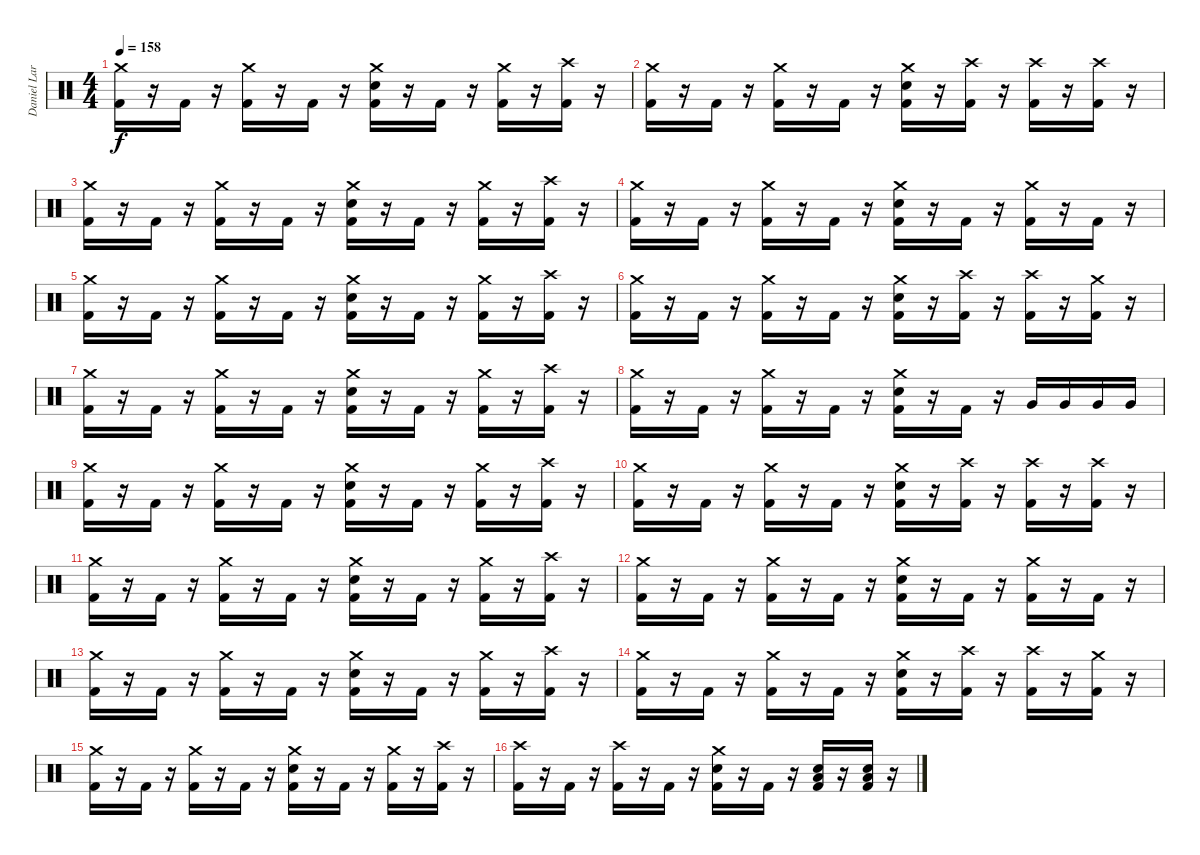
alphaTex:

\track ("Daniel Larsen" "Daniel Lar") {instrument percussion}
\staff {score}
\articulation defaults
\ts (4 4)
\tempo 158
\clef neutral
\ks c
("Crash medium (hit)" "Kick (hit) 2").16{dy f} r.16 "Kick (hit) 2".16 r.16 ("Crash medium (hit)" "Kick (hit) 2").16 r.16 "Kick (hit) 2".16 r.16 ("Crash medium (hit)" "Electric Snare (hit)" "Kick (hit) 2").16 r.16 "Kick (hit) 2".16 r.16 ("Crash medium (hit)" "Kick (hit) 2").16 r.16 ("Crash high (hit)" "Kick (hit) 2").16 r.16 |
("Crash medium (hit)" "Kick (hit) 2").16 r.16 "Kick (hit) 2".16 r.16 ("Crash medium (hit)" "Kick (hit) 2").16 r.16 "Kick (hit) 2".16 r.16 ("Crash medium (hit)" "Electric Snare (hit)" "Kick (hit) 2").16 r.16 ("Crash high (hit)" "Kick (hit) 2").16 r.16 ("Crash high (hit)" "Kick (hit) 2").16 r.16 ("Crash high (hit)" "Kick (hit) 2").16 r.16 |
("Crash medium (hit)" "Kick (hit) 2").16 r.16 "Kick (hit) 2".16 r.16 ("Crash medium (hit)" "Kick (hit) 2").16 r.16 "Kick (hit) 2".16 r.16 ("Crash medium (hit)" "Electric Snare (hit)" "Kick (hit) 2").16 r.16 "Kick (hit) 2".16 r.16 ("Crash medium (hit)" "Kick (hit) 2").16 r.16 ("Crash high (hit)" "Kick (hit) 2").16 r.16 |
("Crash medium (hit)" "Kick (hit) 2").16 r.16 "Kick (hit) 2".16 r.16 ("Crash medium (hit)" "Kick (hit) 2").16 r.16 "Kick (hit) 2".16 r.16 ("Crash medium (hit)" "Electric Snare (hit)" "Kick (hit) 2").16 r.16 "Kick (hit) 2".16 r.16 ("Crash medium (hit)" "Kick (hit) 2").16 r.16 "Kick (hit) 2".16 r.16 |
("Crash medium (hit)" "Kick (hit) 2").16 r.16 "Kick (hit) 2".16 r.16 ("Crash medium (hit)" "Kick (hit) 2").16 r.16 "Kick (hit) 2".16 r.16 ("Crash medium (hit)" "Electric Snare (hit)" "Kick (hit) 2").16 r.16 "Kick (hit) 2".16 r.16 ("Crash medium (hit)" "Kick (hit) 2").16 r.16 ("Crash high (hit)" "Kick (hit) 2").16 r.16 |
("Crash medium (hit)" "Kick (hit) 2").16 r.16 "Kick (hit) 2".16 r.16 ("Crash medium (hit)" "Kick (hit) 2").16 r.16 "Kick (hit) 2".16 r.16 ("Crash medium (hit)" "Electric Snare (hit)" "Kick (hit) 2").16 r.16 ("Crash high (hit)" "Kick (hit) 2").16 r.16 ("Crash high (hit)" "Kick (hit) 2").16 r.16 ("Crash medium (hit)" "Kick (hit) 2").16 r.16 |
("Crash medium (hit)" "Kick (hit) 2").16 r.16 "Kick (hit) 2".16 r.16 ("Crash medium (hit)" "Kick (hit) 2").16 r.16 "Kick (hit) 2".16 r.16 ("Crash medium (hit)" "Electric Snare (hit)" "Kick (hit) 2").16 r.16 "Kick (hit) 2".16 r.16 ("Crash medium (hit)" "Kick (hit) 2").16 r.16 ("Crash high (hit)" "Kick (hit) 2").16 r.16 |
("Crash medium (hit)" "Kick (hit) 2").16 r.16 "Kick (hit) 2".16 r.16 ("Crash medium (hit)" "Kick (hit) 2").16 r.16 "Kick (hit) 2".16 r.16 ("Crash medium (hit)" "Electric Snare (hit)" "Kick (hit) 2").16 r.16 "Kick (hit) 2".16 r.16 "Very Low Tom (hit)".16 "Very Low Tom (hit)".16 "Very Low Tom (hit)".16 "Very Low Tom (hit)".16 |
("Crash medium (hit)" "Kick (hit) 2").16 r.16 "Kick (hit) 2".16 r.16 ("Crash medium (hit)" "Kick (hit) 2").16 r.16 "Kick (hit) 2".16 r.16 ("Crash medium (hit)" "Electric Snare (hit)" "Kick (hit) 2").16 r.16 "Kick (hit) 2".16 r.16 ("Crash medium (hit)" "Kick (hit) 2").16 r.16 ("Crash high (hit)" "Kick (hit) 2").16 r.16 |
("Crash medium (hit)" "Kick (hit) 2").16 r.16 "Kick (hit) 2".16 r.16 ("Crash medium (hit)" "Kick (hit) 2").16 r.16 "Kick (hit) 2".16 r.16 ("Crash medium (hit)" "Electric Snare (hit)" "Kick (hit) 2").16 r.16 ("Crash high (hit)" "Kick (hit) 2").16 r.16 ("Crash high (hit)" "Kick (hit) 2").16 r.16 ("Crash high (hit)" "Kick (hit) 2").16 r.16 |
("Crash medium (hit)" "Kick (hit) 2").16 r.16 "Kick (hit) 2".16 r.16 ("Crash medium (hit)" "Kick (hit) 2").16 r.16 "Kick (hit) 2".16 r.16 ("Crash medium (hit)" "Electric Snare (hit)" "Kick (hit) 2").16 r.16 "Kick (hit) 2".16 r.16 ("Crash medium (hit)" "Kick (hit) 2").16 r.16 ("Crash high (hit)" "Kick (hit) 2").16 r.16 |
("Crash medium (hit)" "Kick (hit) 2").16 r.16 "Kick (hit) 2".16 r.16 ("Crash medium (hit)" "Kick (hit) 2").16 r.16 "Kick (hit) 2".16 r.16 ("Crash medium (hit)" "Electric Snare (hit)" "Kick (hit) 2").16 r.16 "Kick (hit) 2".16 r.16 ("Crash medium (hit)" "Kick (hit) 2").16 r.16 "Kick (hit) 2".16 r.16 |
("Crash medium (hit)" "Kick (hit) 2").16 r.16 "Kick (hit) 2".16 r.16 ("Crash medium (hit)" "Kick (hit) 2").16 r.16 "Kick (hit) 2".16 r.16 ("Crash medium (hit)" "Electric Snare (hit)" "Kick (hit) 2").16 r.16 "Kick (hit) 2".16 r.16 ("Crash medium (hit)" "Kick (hit) 2").16 r.16 ("Crash high (hit)" "Kick (hit) 2").16 r.16 |
("Crash medium (hit)" "Kick (hit) 2").16 r.16 "Kick (hit) 2".16 r.16 ("Crash medium (hit)" "Kick (hit) 2").16 r.16 "Kick (hit) 2".16 r.16 ("Crash medium (hit)" "Electric Snare (hit)" "Kick (hit) 2").16 r.16 ("Crash high (hit)" "Kick (hit) 2").16 r.16 ("Crash high (hit)" "Kick (hit) 2").16 r.16 ("Crash medium (hit)" "Kick (hit) 2").16 r.16 |
("Crash medium (hit)" "Kick (hit) 2").16 r.16 "Kick (hit) 2".16 r.16 ("Crash medium (hit)" "Kick (hit) 2").16 r.16 "Kick (hit) 2".16 r.16 ("Crash medium (hit)" "Electric Snare (hit)" "Kick (hit) 2").16 r.16 "Kick (hit) 2".16 r.16 ("Crash medium (hit)" "Kick (hit) 2").16 r.16 ("Crash high (hit)" "Kick (hit) 2").16 r.16 |
("Crash high (hit)" "Kick (hit) 2").16 r.16 "Kick (hit) 2".16 r.16 ("Crash high (hit)" "Kick (hit) 2").16 r.16 "Kick (hit) 2".16 r.16 ("Crash medium (hit)" "Electric Snare (hit)" "Kick (hit) 2").16 r.16 "Kick (hit) 2".16 r.16 ("Low Floor Tom (hit)" "Electric Snare (hit)" "Kick (hit) 2").16 r.16 ("Low Floor Tom (hit)" "Electric Snare (hit)" "Kick (hit) 2").16 r.16
